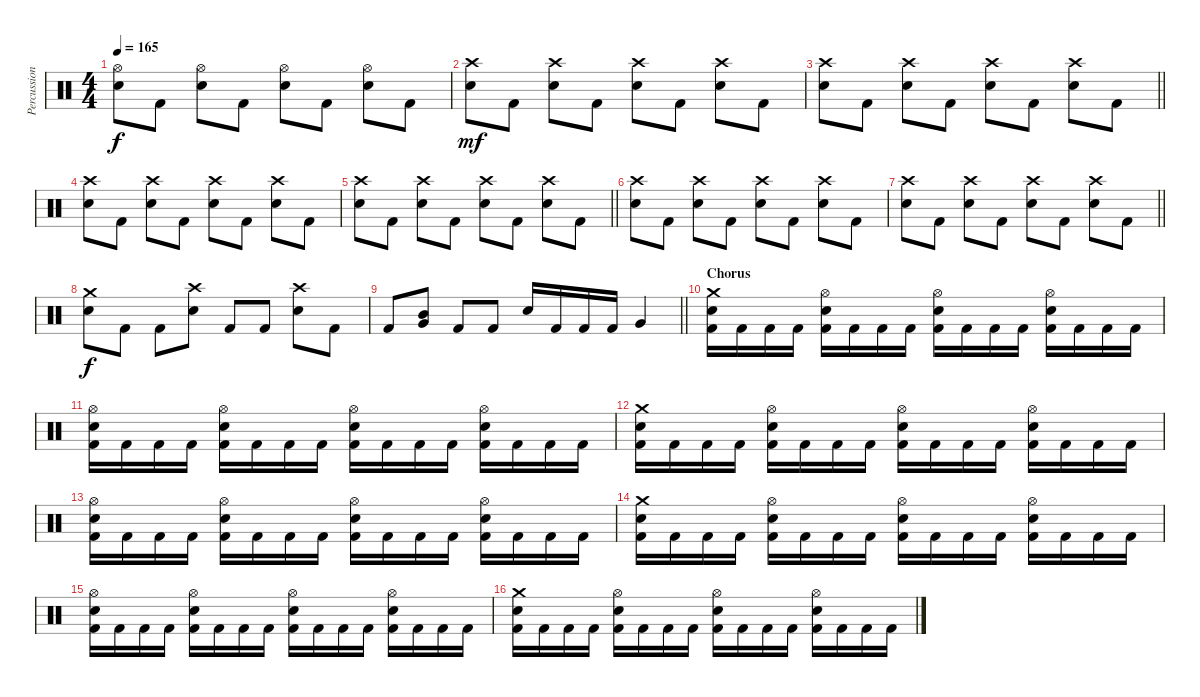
\track ("Percussions" "Percussion") {instrument percussion}
\staff {score}
\articulation defaults
\ts (4 4)
\tempo 165
\clef neutral
\ks c
("Hi-Hat (open)" "Electric Snare (hit)").8{dy f} "Kick (hit) 2".8 ("Hi-Hat (open)" "Electric Snare (hit)").8 "Kick (hit) 2".8 ("Hi-Hat (open)" "Electric Snare (hit)").8 "Kick (hit) 2".8 ("Hi-Hat (open)" "Electric Snare (hit)").8 "Kick (hit) 2".8 |
("Crash high (hit)" "Electric Snare (hit)").8{dy mf} "Kick (hit) 2".8 ("Crash high (hit)" "Electric Snare (hit)").8 "Kick (hit) 2".8 ("Crash high (hit)" "Electric Snare (hit)").8 "Kick (hit) 2".8 ("Crash high (hit)" "Electric Snare (hit)").8 "Kick (hit) 2".8 |
\barLineRight lightlight
("Crash high (hit)" "Electric Snare (hit)").8 "Kick (hit) 2".8 ("Crash high (hit)" "Electric Snare (hit)").8 "Kick (hit) 2".8 ("Crash high (hit)" "Electric Snare (hit)").8 "Kick (hit) 2".8 ("Crash high (hit)" "Electric Snare (hit)").8 "Kick (hit) 2".8 |
("Crash high (hit)" "Electric Snare (hit)").8 "Kick (hit) 2".8 ("Crash high (hit)" "Electric Snare (hit)").8 "Kick (hit) 2".8 ("Crash high (hit)" "Electric Snare (hit)").8 "Kick (hit) 2".8 ("Crash high (hit)" "Electric Snare (hit)").8 "Kick (hit) 2".8 |
\barLineRight lightlight
("Crash high (hit)" "Electric Snare (hit)").8 "Kick (hit) 2".8 ("Crash high (hit)" "Electric Snare (hit)").8 "Kick (hit) 2".8 ("Crash high (hit)" "Electric Snare (hit)").8 "Kick (hit) 2".8 ("Crash high (hit)" "Electric Snare (hit)").8 "Kick (hit) 2".8 |
("Crash high (hit)" "Electric Snare (hit)").8 "Kick (hit) 2".8 ("Crash high (hit)" "Electric Snare (hit)").8 "Kick (hit) 2".8 ("Crash high (hit)" "Electric Snare (hit)").8 "Kick (hit) 2".8 ("Crash high (hit)" "Electric Snare (hit)").8 "Kick (hit) 2".8 |
\barLineRight lightlight
("Crash high (hit)" "Electric Snare (hit)").8 "Kick (hit) 2".8 ("Crash high (hit)" "Electric Snare (hit)").8 "Kick (hit) 2".8 ("Crash high (hit)" "Electric Snare (hit)").8 "Kick (hit) 2".8 ("Crash high (hit)" "Electric Snare (hit)").8 "Kick (hit) 2".8 |
("Crash medium (hit)" "Electric Snare (hit)").8{dy f} "Kick (hit) 2".8 "Kick (hit) 2".8 ("Crash high (hit)" "Electric Snare (hit)").8 "Kick (hit) 2".8 "Kick (hit) 2".8 ("Crash high (hit)" "Electric Snare (hit)").8 "Kick (hit) 2".8 |
\barLineRight lightlight "Kick (hit) 2".8
("Mid Tom (hit)" "Very Low Tom (hit)").8 "Kick (hit) 2".8 "Kick (hit) 2".8 "Electric Snare (hit)".16 "Kick (hit) 2".16 "Kick (hit) 2".16 "Kick (hit) 2".16 "Very Low Tom (hit)".4 |
\section ("" "Chorus")
("Crash medium (hit)" "Electric Snare (hit)" "Kick (hit) 2").16 "Kick (hit) 2".16 "Kick (hit) 2".16 "Kick (hit) 2".16 ("Hi-Hat (open)" "Electric Snare (hit)" "Kick (hit) 2").16 "Kick (hit) 2".16 "Kick (hit) 2".16 "Kick (hit) 2".16 ("Hi-Hat (open)" "Electric Snare (hit)" "Kick (hit) 2").16 "Kick (hit) 2".16 "Kick (hit) 2".16 "Kick (hit) 2".16 ("Hi-Hat (open)" "Electric Snare (hit)" "Kick (hit) 2").16 "Kick (hit) 2".16 "Kick (hit) 2".16 "Kick (hit) 2".16 |
("Hi-Hat (open)" "Electric Snare (hit)" "Kick (hit) 2").16 "Kick (hit) 2".16 "Kick (hit) 2".16 "Kick (hit) 2".16 ("Hi-Hat (open)" "Electric Snare (hit)" "Kick (hit) 2").16 "Kick (hit) 2".16 "Kick (hit) 2".16 "Kick (hit) 2".16 ("Hi-Hat (open)" "Electric Snare (hit)" "Kick (hit) 2").16 "Kick (hit) 2".16 "Kick (hit) 2".16 "Kick (hit) 2".16 ("Hi-Hat (open)" "Electric Snare (hit)" "Kick (hit) 2").16 "Kick (hit) 2".16 "Kick (hit) 2".16 "Kick (hit) 2".16 |
("Crash medium (hit)" "Electric Snare (hit)" "Kick (hit) 2").16 "Kick (hit) 2".16 "Kick (hit) 2".16 "Kick (hit) 2".16 ("Hi-Hat (open)" "Electric Snare (hit)" "Kick (hit) 2").16 "Kick (hit) 2".16 "Kick (hit) 2".16 "Kick (hit) 2".16 ("Hi-Hat (open)" "Electric Snare (hit)" "Kick (hit) 2").16 "Kick (hit) 2".16 "Kick (hit) 2".16 "Kick (hit) 2".16 ("Hi-Hat (open)" "Electric Snare (hit)" "Kick (hit) 2").16 "Kick (hit) 2".16 "Kick (hit) 2".16 "Kick (hit) 2".16 |
("Hi-Hat (open)" "Electric Snare (hit)" "Kick (hit) 2").16 "Kick (hit) 2".16 "Kick (hit) 2".16 "Kick (hit) 2".16 ("Hi-Hat (open)" "Electric Snare (hit)" "Kick (hit) 2").16 "Kick (hit) 2".16 "Kick (hit) 2".16 "Kick (hit) 2".16 ("Hi-Hat (open)" "Electric Snare (hit)" "Kick (hit) 2").16 "Kick (hit) 2".16 "Kick (hit) 2".16 "Kick (hit) 2".16 ("Hi-Hat (open)" "Electric Snare (hit)" "Kick (hit) 2").16 "Kick (hit) 2".16 "Kick (hit) 2".16 "Kick (hit) 2".16 |
("Crash medium (hit)" "Electric Snare (hit)" "Kick (hit) 2").16 "Kick (hit) 2".16 "Kick (hit) 2".16 "Kick (hit) 2".16 ("Hi-Hat (open)" "Electric Snare (hit)" "Kick (hit) 2").16 "Kick (hit) 2".16 "Kick (hit) 2".16 "Kick (hit) 2".16 ("Hi-Hat (open)" "Electric Snare (hit)" "Kick (hit) 2").16 "Kick (hit) 2".16 "Kick (hit) 2".16 "Kick (hit) 2".16 ("Hi-Hat (open)" "Electric Snare (hit)" "Kick (hit) 2").16 "Kick (hit) 2".16 "Kick (hit) 2".16 "Kick (hit) 2".16 |
("Hi-Hat (open)" "Electric Snare (hit)" "Kick (hit) 2").16 "Kick (hit) 2".16 "Kick (hit) 2".16 "Kick (hit) 2".16 ("Hi-Hat (open)" "Electric Snare (hit)" "Kick (hit) 2").16 "Kick (hit) 2".16 "Kick (hit) 2".16 "Kick (hit) 2".16 ("Hi-Hat (open)" "Electric Snare (hit)" "Kick (hit) 2").16 "Kick (hit) 2".16 "Kick (hit) 2".16 "Kick (hit) 2".16 ("Hi-Hat (open)" "Electric Snare (hit)" "Kick (hit) 2").16 "Kick (hit) 2".16 "Kick (hit) 2".16 "Kick (hit) 2".16 |
("Crash medium (hit)" "Electric Snare (hit)" "Kick (hit) 2").16 "Kick (hit) 2".16 "Kick (hit) 2".16 "Kick (hit) 2".16 ("Hi-Hat (open)" "Electric Snare (hit)" "Kick (hit) 2").16 "Kick (hit) 2".16 "Kick (hit) 2".16 "Kick (hit) 2".16 ("Hi-Hat (open)" "Electric Snare (hit)" "Kick (hit) 2").16 "Kick (hit) 2".16 "Kick (hit) 2".16 "Kick (hit) 2".16 ("Hi-Hat (open)" "Electric Snare (hit)" "Kick (hit) 2").16 "Kick (hit) 2".16 "Kick (hit) 2".16 "Kick (hit) 2".16
